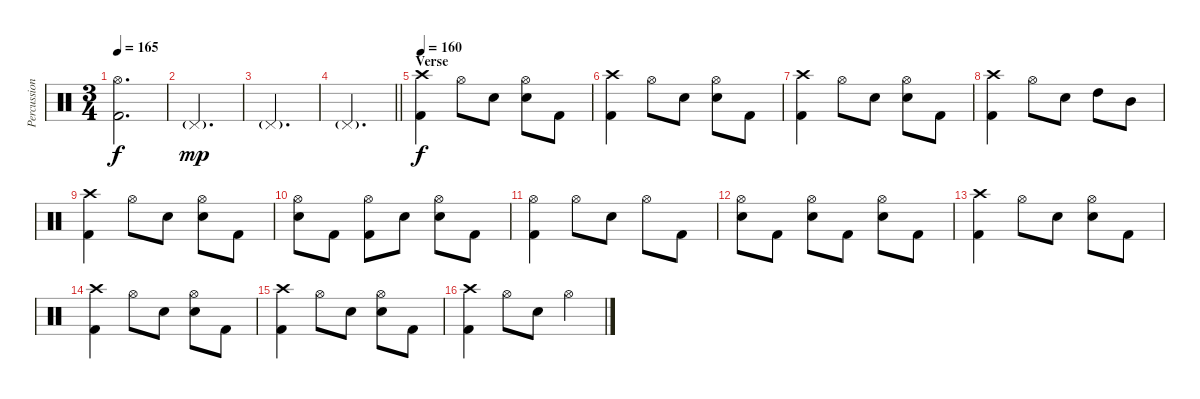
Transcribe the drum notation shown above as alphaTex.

\track ("Percussion" "Percussion") {instrument percussion}
\staff {score}
\articulation defaults
\ts (3 4)
\tempo 165
\clef neutral
\ks c
("Hi-Hat (open)" "Kick (hit) 2").2{d dy f} |
"Pedal Hi-Hat (hit)"{g}.2{d dy mp} |
"Pedal Hi-Hat (hit)"{g}.2{d} |
\barLineRight lightlight "Pedal Hi-Hat (hit)"{g}.2{d}
|
\section ("" "Verse")
\tempo 160
("Crash high (hit)" "Kick (hit) 2").4{dy f} "Hi-Hat (open)".8 "Snare (hit) 2".8 ("Hi-Hat (open)" "Snare (hit) 2").8 "Kick (hit) 2".8 |
("Crash high (hit)" "Kick (hit) 2").4 "Hi-Hat (open)".8 "Snare (hit) 2".8 ("Hi-Hat (open)" "Snare (hit) 2").8 "Kick (hit) 2".8 |
("Crash high (hit)" "Kick (hit) 2").4 "Hi-Hat (open)".8 "Snare (hit) 2".8 ("Hi-Hat (open)" "Snare (hit) 2").8 "Kick (hit) 2".8 |
("Crash high (hit)" "Kick (hit) 2").4 "Hi-Hat (open)".8 "Snare (hit) 2".8 "High Tom (hit)".8 "Mid Tom (hit)".8 |
("Crash high (hit)" "Kick (hit) 2").4 "Hi-Hat (open)".8 "Snare (hit) 2".8 ("Hi-Hat (open)" "Snare (hit) 2").8 "Kick (hit) 2".8 |
("Hi-Hat (open)" "Snare (hit) 2").8 "Kick (hit) 2".8 ("Hi-Hat (open)" "Kick (hit) 2").8 "Snare (hit) 2".8 ("Hi-Hat (open)" "Snare (hit) 2").8 "Kick (hit) 2".8 |
("Hi-Hat (open)" "Kick (hit) 2").4 "Hi-Hat (open)".8 "Snare (hit) 2".8 "Hi-Hat (open)".8 "Kick (hit) 2".8 |
("Hi-Hat (open)" "Snare (hit) 2").8 "Kick (hit) 2".8 ("Hi-Hat (open)" "Snare (hit) 2").8 "Kick (hit) 2".8 ("Hi-Hat (open)" "Snare (hit) 2").8 "Kick (hit) 2".8 |
("Crash high (hit)" "Kick (hit) 2").4 "Hi-Hat (open)".8 "Snare (hit) 2".8 ("Hi-Hat (open)" "Snare (hit) 2").8 "Kick (hit) 2".8 |
("Crash high (hit)" "Kick (hit) 2").4 "Hi-Hat (open)".8 "Snare (hit) 2".8 ("Hi-Hat (open)" "Snare (hit) 2").8 "Kick (hit) 2".8 |
("Crash high (hit)" "Kick (hit) 2").4 "Hi-Hat (open)".8 "Snare (hit) 2".8 ("Hi-Hat (open)" "Snare (hit) 2").8 "Kick (hit) 2".8 |
("Crash high (hit)" "Kick (hit) 2").4 "Hi-Hat (open)".8 "Snare (hit) 2".8 "Hi-Hat (open)".4
